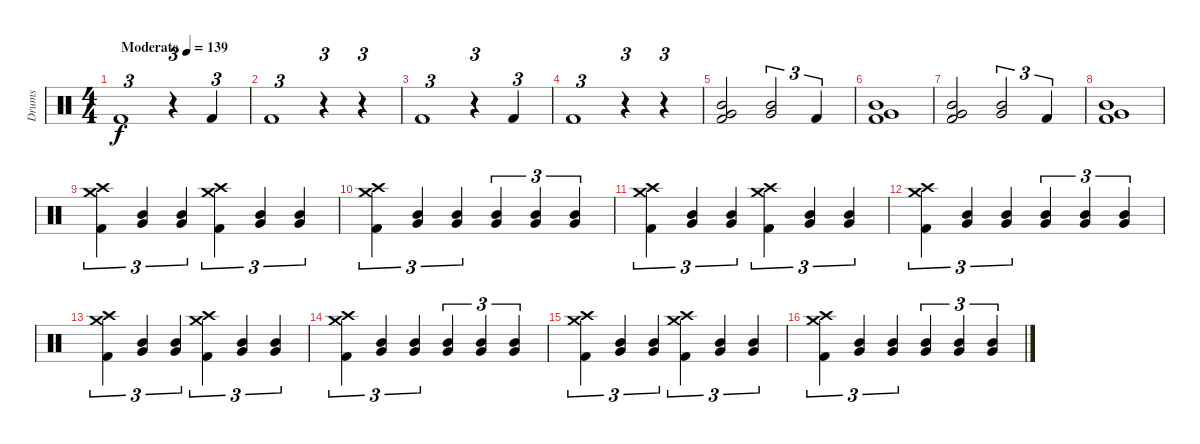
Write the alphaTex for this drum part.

\track ("Drums" "Drums") {instrument percussion}
\staff {score}
\articulation defaults
\ts (4 4)
\tempo (139 "Moderate")
\clef neutral
\ks c "Kick (hit) 2".1{tu (3 2) dy f}
r.4{tu (3 2)} "Kick (hit) 2".4{tu (3 2)} |
"Kick (hit) 2".1{tu (3 2)} r.4{tu (3 2)} r.4{tu (3 2)} |
"Kick (hit) 2".1{tu (3 2)} r.4{tu (3 2)} "Kick (hit) 2".4{tu (3 2)} |
"Kick (hit) 2".1{tu (3 2)} r.4{tu (3 2)} r.4{tu (3 2)} |
("Kick (hit) 2" "Very Low Tom (hit)" "Mid Tom (hit)").2 ("Very Low Tom (hit)" "Mid Tom (hit)").2{tu (3 2)} "Kick (hit) 2".4{tu (3 2)} |
("Kick (hit) 2" "Very Low Tom (hit)" "Mid Tom (hit)").1 |
("Kick (hit) 2" "Very Low Tom (hit)" "Mid Tom (hit)").2 ("Very Low Tom (hit)" "Mid Tom (hit)").2{tu (3 2)} "Kick (hit) 2".4{tu (3 2)} |
("Kick (hit) 2" "Very Low Tom (hit)" "Mid Tom (hit)").1 |
("Kick (hit) 2" "Crash high (hit)" "Crash medium (hit)").4{tu (3 2)} ("Mid Tom (hit)" "Very Low Tom (hit)").4{tu (3 2)} ("Mid Tom (hit)" "Very Low Tom (hit)").4{tu (3 2)} ("Kick (hit) 2" "Crash high (hit)" "Crash medium (hit)").4{tu (3 2)} ("Mid Tom (hit)" "Very Low Tom (hit)").4{tu (3 2)} ("Mid Tom (hit)" "Very Low Tom (hit)").4{tu (3 2)} |
("Kick (hit) 2" "Crash high (hit)" "Crash medium (hit)").4{tu (3 2)} ("Mid Tom (hit)" "Very Low Tom (hit)").4{tu (3 2)} ("Mid Tom (hit)" "Very Low Tom (hit)").4{tu (3 2)} ("Mid Tom (hit)" "Very Low Tom (hit)").4{tu (3 2)} ("Mid Tom (hit)" "Very Low Tom (hit)").4{tu (3 2)} ("Mid Tom (hit)" "Very Low Tom (hit)").4{tu (3 2)} |
("Kick (hit) 2" "Crash high (hit)" "Crash medium (hit)").4{tu (3 2)} ("Mid Tom (hit)" "Very Low Tom (hit)").4{tu (3 2)} ("Mid Tom (hit)" "Very Low Tom (hit)").4{tu (3 2)} ("Kick (hit) 2" "Crash high (hit)" "Crash medium (hit)").4{tu (3 2)} ("Mid Tom (hit)" "Very Low Tom (hit)").4{tu (3 2)} ("Mid Tom (hit)" "Very Low Tom (hit)").4{tu (3 2)} |
("Kick (hit) 2" "Crash high (hit)" "Crash medium (hit)").4{tu (3 2)} ("Mid Tom (hit)" "Very Low Tom (hit)").4{tu (3 2)} ("Mid Tom (hit)" "Very Low Tom (hit)").4{tu (3 2)} ("Mid Tom (hit)" "Very Low Tom (hit)").4{tu (3 2)} ("Mid Tom (hit)" "Very Low Tom (hit)").4{tu (3 2)} ("Mid Tom (hit)" "Very Low Tom (hit)").4{tu (3 2)} |
("Kick (hit) 2" "Crash high (hit)" "Crash medium (hit)").4{tu (3 2)} ("Mid Tom (hit)" "Very Low Tom (hit)").4{tu (3 2)} ("Mid Tom (hit)" "Very Low Tom (hit)").4{tu (3 2)} ("Kick (hit) 2" "Crash high (hit)" "Crash medium (hit)").4{tu (3 2)} ("Mid Tom (hit)" "Very Low Tom (hit)").4{tu (3 2)} ("Mid Tom (hit)" "Very Low Tom (hit)").4{tu (3 2)} |
("Kick (hit) 2" "Crash high (hit)" "Crash medium (hit)").4{tu (3 2)} ("Mid Tom (hit)" "Very Low Tom (hit)").4{tu (3 2)} ("Mid Tom (hit)" "Very Low Tom (hit)").4{tu (3 2)} ("Mid Tom (hit)" "Very Low Tom (hit)").4{tu (3 2)} ("Mid Tom (hit)" "Very Low Tom (hit)").4{tu (3 2)} ("Mid Tom (hit)" "Very Low Tom (hit)").4{tu (3 2)} |
("Kick (hit) 2" "Crash high (hit)" "Crash medium (hit)").4{tu (3 2)} ("Mid Tom (hit)" "Very Low Tom (hit)").4{tu (3 2)} ("Mid Tom (hit)" "Very Low Tom (hit)").4{tu (3 2)} ("Kick (hit) 2" "Crash high (hit)" "Crash medium (hit)").4{tu (3 2)} ("Mid Tom (hit)" "Very Low Tom (hit)").4{tu (3 2)} ("Mid Tom (hit)" "Very Low Tom (hit)").4{tu (3 2)} |
("Kick (hit) 2" "Crash high (hit)" "Crash medium (hit)").4{tu (3 2)} ("Mid Tom (hit)" "Very Low Tom (hit)").4{tu (3 2)} ("Mid Tom (hit)" "Very Low Tom (hit)").4{tu (3 2)} ("Mid Tom (hit)" "Very Low Tom (hit)").4{tu (3 2)} ("Mid Tom (hit)" "Very Low Tom (hit)").4{tu (3 2)} ("Mid Tom (hit)" "Very Low Tom (hit)").4{tu (3 2)}
